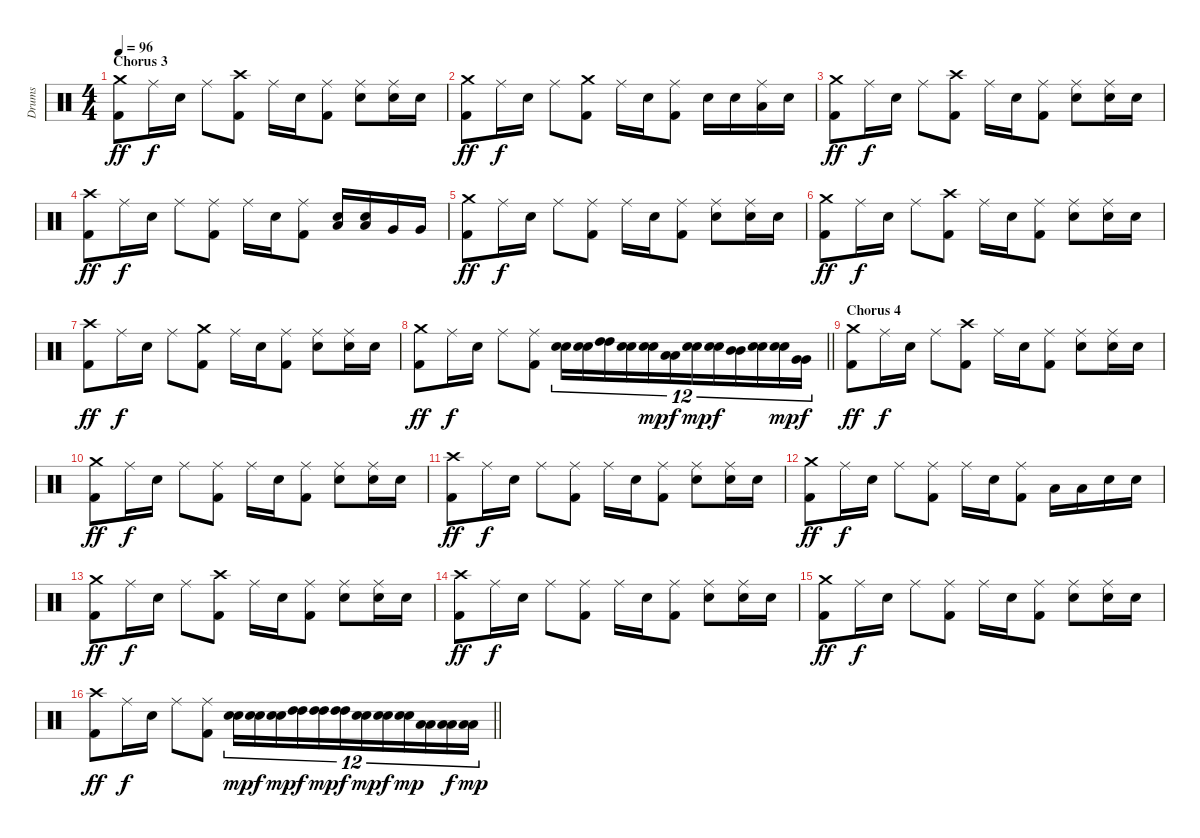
\track ("Drums" "Drums") {instrument percussion}
\staff {score}
\articulation defaults
\ts (4 4)
\section ("" "Chorus 3")
\tempo 96
\clef neutral
\ks c
("Crash medium (hit)" "Kick (hit) 2").8{dy ff} "Ride (middle)".16{dy f} "Snare (hit) 2".16 "Ride (middle)".8 ("Crash high (hit)" "Kick (hit) 2").8 "Ride (middle)".16 "Snare (hit) 2".16 ("Ride (middle)" "Kick (hit) 2").8 ("Ride (middle)" "Snare (hit) 2").8 ("Ride (middle)" "Snare (hit) 2").16 "Snare (hit) 2".16 |
("Crash medium (hit)" "Kick (hit) 2").8{dy ff} "Ride (middle)".16{dy f} "Snare (hit) 2".16 "Ride (middle)".8 ("Crash medium (hit)" "Kick (hit) 2").8 "Ride (middle)".16 "Snare (hit) 2".16 ("Ride (middle)" "Kick (hit) 2").8 "Snare (hit) 2".16 "Snare (hit) 2".16 ("Ride (middle)" "Low Tom (hit)").16 "Snare (hit) 2".16 |
("Crash medium (hit)" "Kick (hit) 2").8{dy ff} "Ride (middle)".16{dy f} "Snare (hit) 2".16 "Ride (middle)".8 ("Crash high (hit)" "Kick (hit) 2").8 "Ride (middle)".16 "Snare (hit) 2".16 ("Ride (middle)" "Kick (hit) 2").8 ("Ride (middle)" "Snare (hit) 2").8 ("Ride (middle)" "Snare (hit) 2").16 "Snare (hit) 2".16 |
("Crash high (hit)" "Kick (hit) 2").8{dy ff} "Ride (middle)".16{dy f} "Snare (hit) 2".16 "Ride (middle)".8 ("Ride (middle)" "Kick (hit) 2").8 "Ride (middle)".16 "Snare (hit) 2".16 ("Ride (middle)" "Kick (hit) 2").8 ("Snare (hit) 2" "Low Tom (hit)").16 ("Snare (hit) 2" "Low Tom (hit)").16 "Very Low Tom (hit)".16 "Very Low Tom (hit)".16 |
("Crash medium (hit)" "Kick (hit) 2").8{dy ff} "Ride (middle)".16{dy f} "Snare (hit) 2".16 "Ride (middle)".8 ("Ride (middle)" "Kick (hit) 2").8 "Ride (middle)".16 "Snare (hit) 2".16 ("Ride (middle)" "Kick (hit) 2").8 ("Ride (middle)" "Snare (hit) 2").8 ("Ride (middle)" "Snare (hit) 2").16 "Snare (hit) 2".16 |
("Crash medium (hit)" "Kick (hit) 2").8{dy ff} "Ride (middle)".16{dy f} "Snare (hit) 2".16 "Ride (middle)".8 ("Crash high (hit)" "Kick (hit) 2").8 "Ride (middle)".16 "Snare (hit) 2".16 ("Ride (middle)" "Kick (hit) 2").8 ("Ride (middle)" "Snare (hit) 2").8 ("Ride (middle)" "Snare (hit) 2").16 "Snare (hit) 2".16 |
("Crash high (hit)" "Kick (hit) 2").8{dy ff} "Ride (middle)".16{dy f} "Snare (hit) 2".16 "Ride (middle)".8 ("Crash medium (hit)" "Kick (hit) 2").8 "Ride (middle)".16 "Snare (hit) 2".16 ("Ride (middle)" "Kick (hit) 2").8 ("Ride (middle)" "Snare (hit) 2").8 ("Ride (middle)" "Snare (hit) 2").16 "Snare (hit) 2".16 |
\barLineRight lightlight
("Crash medium (hit)" "Kick (hit) 2").8{dy ff} "Ride (middle)".16{dy f} "Snare (hit) 2".16 "Ride (middle)".8 ("Ride (middle)" "Kick (hit) 2").8 ("Snare (hit) 2" "Snare (hit) 2").16{tu (12 8)} ("Snare (hit) 2" "Snare (hit) 2").16{tu (12 8)} ("High Tom (hit)" "High Tom (hit)").16{tu (12 8)} ("Snare (hit) 2" "Snare (hit) 2").16{tu (12 8)} ("Snare (hit) 2" "Snare (hit) 2").16{tu (12 8) dy mp} ("Low Tom (hit)" "Low Tom (hit)").16{tu (12 8) dy f} ("Snare (hit) 2" "Snare (hit) 2").16{tu (12 8) dy mp} ("Snare (hit) 2" "Snare (hit) 2").16{tu (12 8) dy f} ("Mid Tom (hit)" "Mid Tom (hit)").16{tu (12 8)} ("Snare (hit) 2" "Snare (hit) 2").16{tu (12 8)} ("Snare (hit) 2" "Snare (hit) 2").16{tu (12 8) dy mp} ("Very Low Tom (hit)" "Very Low Tom (hit)").16{tu (12 8) dy f} |
\section ("" "Chorus 4")
("Crash medium (hit)" "Kick (hit) 2").8{dy ff} "Ride (middle)".16{dy f} "Snare (hit) 2".16 "Ride (middle)".8 ("Crash high (hit)" "Kick (hit) 2").8 "Ride (middle)".16 "Snare (hit) 2".16 ("Ride (middle)" "Kick (hit) 2").8 ("Ride (middle)" "Snare (hit) 2").8 ("Ride (middle)" "Snare (hit) 2").16 "Snare (hit) 2".16 |
("Crash medium (hit)" "Kick (hit) 2").8{dy ff} "Ride (middle)".16{dy f} "Snare (hit) 2".16 "Ride (middle)".8 ("Ride (middle)" "Kick (hit) 2").8 "Ride (middle)".16 "Snare (hit) 2".16 ("Ride (middle)" "Kick (hit) 2").8 ("Ride (middle)" "Snare (hit) 2").8 ("Ride (middle)" "Snare (hit) 2").16 "Snare (hit) 2".16 |
("Crash high (hit)" "Kick (hit) 2").8{dy ff} "Ride (middle)".16{dy f} "Snare (hit) 2".16 "Ride (middle)".8 ("Ride (middle)" "Kick (hit) 2").8 "Ride (middle)".16 "Snare (hit) 2".16 ("Ride (middle)" "Kick (hit) 2").8 ("Ride (middle)" "Snare (hit) 2").8 ("Ride (middle)" "Snare (hit) 2").16 "Snare (hit) 2".16 |
("Crash medium (hit)" "Kick (hit) 2").8{dy ff} "Ride (middle)".16{dy f} "Snare (hit) 2".16 "Ride (middle)".8 ("Ride (middle)" "Kick (hit) 2").8 "Ride (middle)".16 "Snare (hit) 2".16 ("Ride (middle)" "Kick (hit) 2").8 "Low Tom (hit)".16 "Low Tom (hit)".16 "Snare (hit) 2".16 "Snare (hit) 2".16 |
("Crash medium (hit)" "Kick (hit) 2").8{dy ff} "Ride (middle)".16{dy f} "Snare (hit) 2".16 "Ride (middle)".8 ("Crash high (hit)" "Kick (hit) 2").8 "Ride (middle)".16 "Snare (hit) 2".16 ("Ride (middle)" "Kick (hit) 2").8 ("Ride (middle)" "Snare (hit) 2").8 ("Ride (middle)" "Snare (hit) 2").16 "Snare (hit) 2".16 |
("Crash high (hit)" "Kick (hit) 2").8{dy ff} "Ride (middle)".16{dy f} "Snare (hit) 2".16 "Ride (middle)".8 ("Ride (middle)" "Kick (hit) 2").8 "Ride (middle)".16 "Snare (hit) 2".16 ("Ride (middle)" "Kick (hit) 2").8 ("Ride (middle)" "Snare (hit) 2").8 ("Ride (middle)" "Snare (hit) 2").16 "Snare (hit) 2".16 |
("Crash medium (hit)" "Kick (hit) 2").8{dy ff} "Ride (middle)".16{dy f} "Snare (hit) 2".16 "Ride (middle)".8 ("Ride (middle)" "Kick (hit) 2").8 "Ride (middle)".16 "Snare (hit) 2".16 ("Ride (middle)" "Kick (hit) 2").8 ("Ride (middle)" "Snare (hit) 2").8 ("Ride (middle)" "Snare (hit) 2").16 "Snare (hit) 2".16 |
\barLineRight lightlight
("Crash high (hit)" "Kick (hit) 2").8{dy ff} "Ride (middle)".16{dy f} "Snare (hit) 2".16 "Ride (middle)".8 ("Ride (middle)" "Kick (hit) 2").8 ("Snare (hit) 2" "Snare (hit) 2").16{tu (12 8) dy mp} ("Snare (hit) 2" "Snare (hit) 2").16{tu (12 8) dy f} ("Snare (hit) 2" "Snare (hit) 2").16{tu (12 8) dy mp} ("High Tom (hit)" "High Tom (hit)").16{tu (12 8) dy f} ("High Tom (hit)" "High Tom (hit)").16{tu (12 8) dy mp} ("High Tom (hit)" "High Tom (hit)").16{tu (12 8) dy f} ("Snare (hit) 2" "Snare (hit) 2").16{tu (12 8) dy mp} ("Snare (hit) 2" "Snare (hit) 2").16{tu (12 8) dy f} ("Snare (hit) 2" "Snare (hit) 2").16{tu (12 8) dy mp} ("Low Tom (hit)" "Low Tom (hit)").16{tu (12 8)} ("Low Tom (hit)" "Low Tom (hit)").16{tu (12 8) dy f} ("Low Tom (hit)" "Low Tom (hit)").16{tu (12 8) dy mp}
